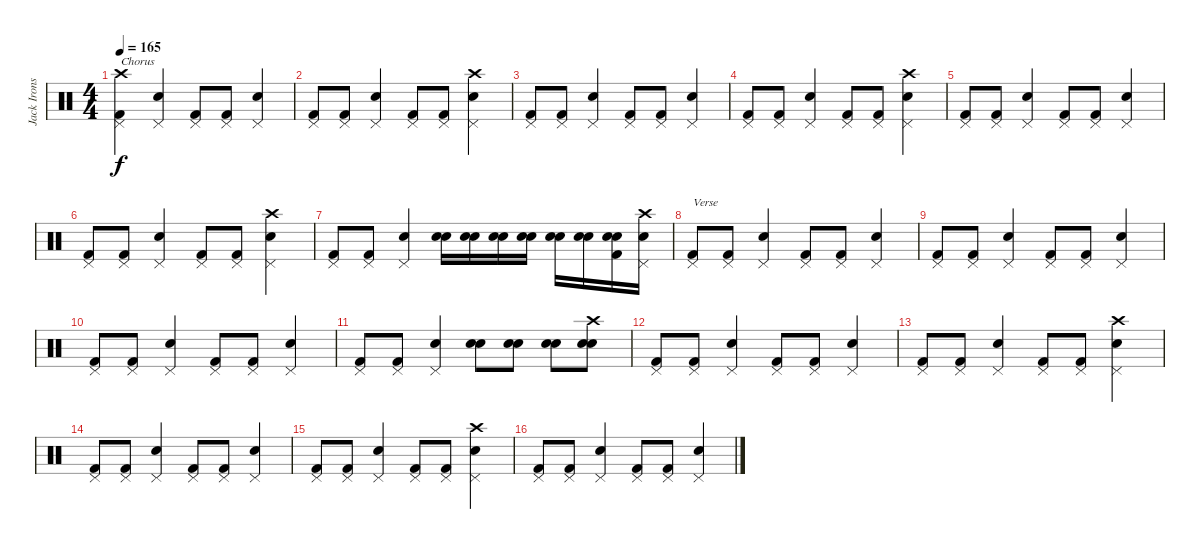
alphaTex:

\track ("Jack Irons" "Jack Irons") {instrument percussion}
\staff {score}
\articulation defaults
\ts (4 4)
\tempo 165
\clef neutral
\ks c
("Crash high (hit)" "Pedal Hi-Hat (hit)" "Kick (hit) 2").4{txt "Chorus" dy f} ("Pedal Hi-Hat (hit)" "Snare (hit) 2").4 ("Pedal Hi-Hat (hit)" "Kick (hit) 2").8 ("Pedal Hi-Hat (hit)" "Kick (hit) 2").8 ("Pedal Hi-Hat (hit)" "Snare (hit) 2").4 |
("Pedal Hi-Hat (hit)" "Kick (hit) 2").8 ("Pedal Hi-Hat (hit)" "Kick (hit) 2").8 ("Pedal Hi-Hat (hit)" "Snare (hit) 2").4 ("Pedal Hi-Hat (hit)" "Kick (hit) 2").8 ("Pedal Hi-Hat (hit)" "Kick (hit) 2").8 ("Crash high (hit)" "Pedal Hi-Hat (hit)" "Snare (hit) 2").4 |
("Pedal Hi-Hat (hit)" "Kick (hit) 2").8 ("Pedal Hi-Hat (hit)" "Kick (hit) 2").8 ("Pedal Hi-Hat (hit)" "Snare (hit) 2").4 ("Pedal Hi-Hat (hit)" "Kick (hit) 2").8 ("Pedal Hi-Hat (hit)" "Kick (hit) 2").8 ("Pedal Hi-Hat (hit)" "Snare (hit) 2").4 |
("Pedal Hi-Hat (hit)" "Kick (hit) 2").8 ("Pedal Hi-Hat (hit)" "Kick (hit) 2").8 ("Pedal Hi-Hat (hit)" "Snare (hit) 2").4 ("Pedal Hi-Hat (hit)" "Kick (hit) 2").8 ("Pedal Hi-Hat (hit)" "Kick (hit) 2").8 ("Crash high (hit)" "Pedal Hi-Hat (hit)" "Snare (hit) 2").4 |
("Pedal Hi-Hat (hit)" "Kick (hit) 2").8 ("Pedal Hi-Hat (hit)" "Kick (hit) 2").8 ("Pedal Hi-Hat (hit)" "Snare (hit) 2").4 ("Pedal Hi-Hat (hit)" "Kick (hit) 2").8 ("Pedal Hi-Hat (hit)" "Kick (hit) 2").8 ("Pedal Hi-Hat (hit)" "Snare (hit) 2").4 |
("Pedal Hi-Hat (hit)" "Kick (hit) 2").8 ("Pedal Hi-Hat (hit)" "Kick (hit) 2").8 ("Pedal Hi-Hat (hit)" "Snare (hit) 2").4 ("Pedal Hi-Hat (hit)" "Kick (hit) 2").8 ("Pedal Hi-Hat (hit)" "Kick (hit) 2").8 ("Crash high (hit)" "Pedal Hi-Hat (hit)" "Snare (hit) 2").4 |
("Pedal Hi-Hat (hit)" "Kick (hit) 2").8 ("Pedal Hi-Hat (hit)" "Kick (hit) 2").8 ("Pedal Hi-Hat (hit)" "Snare (hit) 2").4 ("Snare (hit) 2" "Snare (hit) 2").16 ("Snare (hit) 2" "Snare (hit) 2").16 ("Snare (hit) 2" "Snare (hit) 2").16 ("Snare (hit) 2" "Snare (hit) 2").16 ("Snare (hit) 2" "Snare (hit) 2").16 ("Snare (hit) 2" "Snare (hit) 2").16 ("Snare (hit) 2" "Snare (hit) 2" "Kick (hit) 2").16 ("Crash high (hit)" "Pedal Hi-Hat (hit)" "Snare (hit) 2").16 |
("Pedal Hi-Hat (hit)" "Kick (hit) 2").8{txt "Verse"} ("Pedal Hi-Hat (hit)" "Kick (hit) 2").8 ("Pedal Hi-Hat (hit)" "Snare (hit) 2").4 ("Pedal Hi-Hat (hit)" "Kick (hit) 2").8 ("Pedal Hi-Hat (hit)" "Kick (hit) 2").8 ("Pedal Hi-Hat (hit)" "Snare (hit) 2").4 |
("Pedal Hi-Hat (hit)" "Kick (hit) 2").8 ("Pedal Hi-Hat (hit)" "Kick (hit) 2").8 ("Pedal Hi-Hat (hit)" "Snare (hit) 2").4 ("Pedal Hi-Hat (hit)" "Kick (hit) 2").8 ("Pedal Hi-Hat (hit)" "Kick (hit) 2").8 ("Pedal Hi-Hat (hit)" "Snare (hit) 2").4 |
("Pedal Hi-Hat (hit)" "Kick (hit) 2").8 ("Pedal Hi-Hat (hit)" "Kick (hit) 2").8 ("Pedal Hi-Hat (hit)" "Snare (hit) 2").4 ("Pedal Hi-Hat (hit)" "Kick (hit) 2").8 ("Pedal Hi-Hat (hit)" "Kick (hit) 2").8 ("Pedal Hi-Hat (hit)" "Snare (hit) 2").4 |
("Pedal Hi-Hat (hit)" "Kick (hit) 2").8 ("Pedal Hi-Hat (hit)" "Kick (hit) 2").8 ("Pedal Hi-Hat (hit)" "Snare (hit) 2").4 ("Snare (hit) 2" "Snare (hit) 2").8 ("Snare (hit) 2" "Snare (hit) 2").8 ("Snare (hit) 2" "Snare (hit) 2").8 ("Crash high (hit)" "Snare (hit) 2" "Snare (hit) 2").8 |
("Pedal Hi-Hat (hit)" "Kick (hit) 2").8 ("Pedal Hi-Hat (hit)" "Kick (hit) 2").8 ("Pedal Hi-Hat (hit)" "Snare (hit) 2").4 ("Pedal Hi-Hat (hit)" "Kick (hit) 2").8 ("Pedal Hi-Hat (hit)" "Kick (hit) 2").8 ("Pedal Hi-Hat (hit)" "Snare (hit) 2").4 |
("Pedal Hi-Hat (hit)" "Kick (hit) 2").8 ("Pedal Hi-Hat (hit)" "Kick (hit) 2").8 ("Pedal Hi-Hat (hit)" "Snare (hit) 2").4 ("Pedal Hi-Hat (hit)" "Kick (hit) 2").8 ("Pedal Hi-Hat (hit)" "Kick (hit) 2").8 ("Crash high (hit)" "Pedal Hi-Hat (hit)" "Snare (hit) 2").4 |
("Pedal Hi-Hat (hit)" "Kick (hit) 2").8 ("Pedal Hi-Hat (hit)" "Kick (hit) 2").8 ("Pedal Hi-Hat (hit)" "Snare (hit) 2").4 ("Pedal Hi-Hat (hit)" "Kick (hit) 2").8 ("Pedal Hi-Hat (hit)" "Kick (hit) 2").8 ("Pedal Hi-Hat (hit)" "Snare (hit) 2").4 |
("Pedal Hi-Hat (hit)" "Kick (hit) 2").8 ("Pedal Hi-Hat (hit)" "Kick (hit) 2").8 ("Pedal Hi-Hat (hit)" "Snare (hit) 2").4 ("Pedal Hi-Hat (hit)" "Kick (hit) 2").8 ("Pedal Hi-Hat (hit)" "Kick (hit) 2").8 ("Crash high (hit)" "Pedal Hi-Hat (hit)" "Snare (hit) 2").4 |
("Pedal Hi-Hat (hit)" "Kick (hit) 2").8 ("Pedal Hi-Hat (hit)" "Kick (hit) 2").8 ("Pedal Hi-Hat (hit)" "Snare (hit) 2").4 ("Pedal Hi-Hat (hit)" "Kick (hit) 2").8 ("Pedal Hi-Hat (hit)" "Kick (hit) 2").8 ("Pedal Hi-Hat (hit)" "Snare (hit) 2").4
